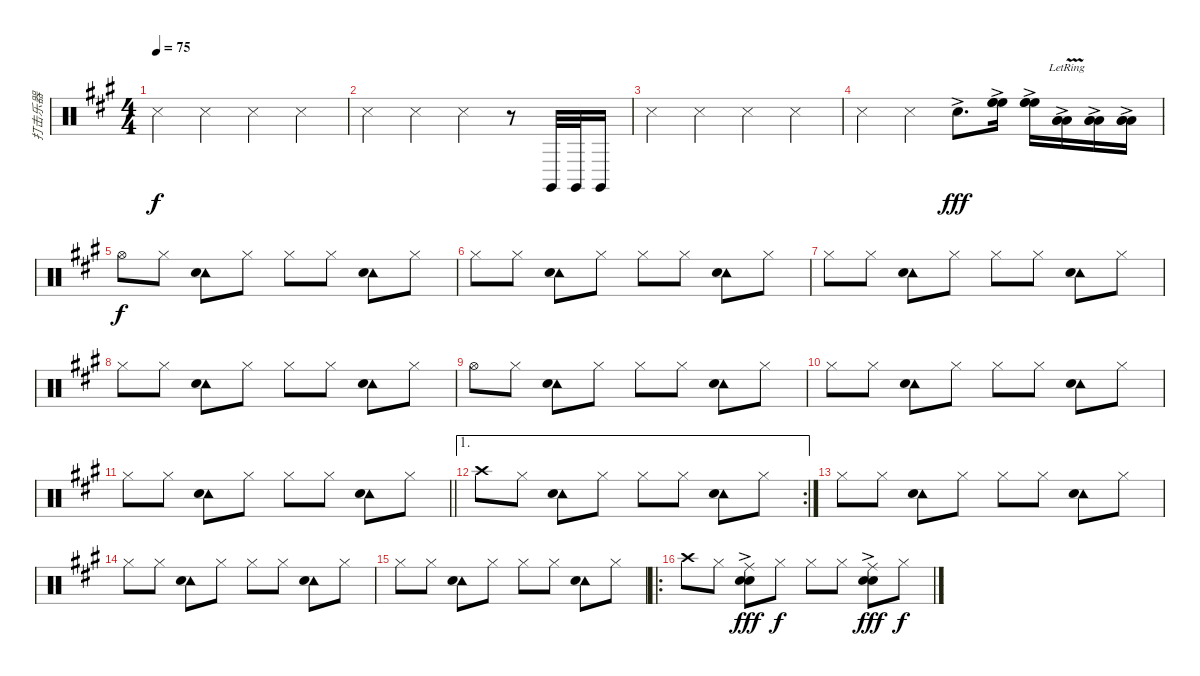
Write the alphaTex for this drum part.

\track ("打击乐器" "打击乐器") {instrument percussion}
\staff {score}
\articulation defaults
\ts (4 4)
\tempo 75
\clef neutral
\ks a "Metronome (hit)".4{dy f} "Metronome (hit)".4 "Metronome (hit)".4 "Metronome (hit)".4
|
"Metronome (hit)".4 "Metronome (hit)".4 "Metronome (hit)".4 r.8 "Claves (hit)".32 "Claves (hit)".32 "Claves (hit)".16 |
"Metronome (hit)".4 "Metronome (hit)".4 "Metronome (hit)".4 "Metronome (hit)".4 |
"Metronome (hit)".4 "Metronome (hit)".4 "Electric Snare (hit)"{ac}.8{d dy fff} ("High Floor Tom (hit)"{ac} "High Floor Tom (hit)"{ac} "High Floor Tom (hit)"{ac}).16 ("High Floor Tom (hit)"{ac} "High Floor Tom (hit)"{ac} "High Floor Tom (hit)"{ac}).16 ("Low Tom (hit)"{ac} "Low Tom (hit)"{v ac} "Low Tom (hit)"{v ac lr}).16 ("Low Tom (hit)"{ac lr} "Low Tom (hit)"{ac} "Low Tom (hit)"{ac}).16 ("Low Floor Tom (hit)"{ac} "Low Floor Tom (hit)"{ac} "Low Floor Tom (hit)"{ac}).16 |
"Hi-Hat (open)".8{dy f} "Hi-Hat (closed)".8 ("Tambourine (hit)" "Electric Snare (hit)").8 "Hi-Hat (closed)".8 "Hi-Hat (closed)".8 "Hi-Hat (closed)".8 ("Tambourine (hit)" "Electric Snare (hit)").8 "Hi-Hat (closed)".8 |
"Hi-Hat (closed)".8 "Hi-Hat (closed)".8 ("Tambourine (hit)" "Electric Snare (hit)").8 "Hi-Hat (closed)".8 "Hi-Hat (closed)".8 "Hi-Hat (closed)".8 ("Tambourine (hit)" "Electric Snare (hit)").8 "Hi-Hat (closed)".8 |
"Hi-Hat (closed)".8 "Hi-Hat (closed)".8 ("Tambourine (hit)" "Electric Snare (hit)").8 "Hi-Hat (closed)".8 "Hi-Hat (closed)".8 "Hi-Hat (closed)".8 ("Tambourine (hit)" "Electric Snare (hit)").8 "Hi-Hat (closed)".8 |
"Hi-Hat (closed)".8 "Hi-Hat (closed)".8 ("Tambourine (hit)" "Electric Snare (hit)").8 "Hi-Hat (closed)".8 "Hi-Hat (closed)".8 "Hi-Hat (closed)".8 ("Tambourine (hit)" "Electric Snare (hit)").8 "Hi-Hat (closed)".8 |
"Hi-Hat (open)".8 "Hi-Hat (closed)".8 ("Tambourine (hit)" "Electric Snare (hit)").8 "Hi-Hat (closed)".8 "Hi-Hat (closed)".8 "Hi-Hat (closed)".8 ("Tambourine (hit)" "Electric Snare (hit)").8 "Hi-Hat (closed)".8 |
"Hi-Hat (closed)".8 "Hi-Hat (closed)".8 ("Tambourine (hit)" "Electric Snare (hit)").8 "Hi-Hat (closed)".8 "Hi-Hat (closed)".8 "Hi-Hat (closed)".8 ("Tambourine (hit)" "Electric Snare (hit)").8 "Hi-Hat (closed)".8 |
\barLineRight lightlight "Hi-Hat (closed)".8 "Hi-Hat (closed)".8
("Tambourine (hit)" "Electric Snare (hit)").8 "Hi-Hat (closed)".8 "Hi-Hat (closed)".8 "Hi-Hat (closed)".8 ("Tambourine (hit)" "Electric Snare (hit)").8 "Hi-Hat (closed)".8 |
\ae 1
\rc 2 "Crash high (hit)".8 "Hi-Hat (closed)".8
("Tambourine (hit)" "Electric Snare (hit)").8 "Hi-Hat (closed)".8 "Hi-Hat (closed)".8 "Hi-Hat (closed)".8 ("Tambourine (hit)" "Electric Snare (hit)").8 "Hi-Hat (closed)".8 |
"Hi-Hat (closed)".8 "Hi-Hat (closed)".8 ("Tambourine (hit)" "Electric Snare (hit)").8 "Hi-Hat (closed)".8 "Hi-Hat (closed)".8 "Hi-Hat (closed)".8 ("Tambourine (hit)" "Electric Snare (hit)").8 "Hi-Hat (closed)".8 |
"Hi-Hat (closed)".8 "Hi-Hat (closed)".8 ("Tambourine (hit)" "Electric Snare (hit)").8 "Hi-Hat (closed)".8 "Hi-Hat (closed)".8 "Hi-Hat (closed)".8 ("Tambourine (hit)" "Electric Snare (hit)").8 "Hi-Hat (closed)".8 |
"Hi-Hat (closed)".8 "Hi-Hat (closed)".8 ("Tambourine (hit)" "Electric Snare (hit)").8 "Hi-Hat (closed)".8 "Hi-Hat (closed)".8 "Hi-Hat (closed)".8 ("Tambourine (hit)" "Electric Snare (hit)").8 "Hi-Hat (closed)".8 |
\ro "Crash high (hit)".8 "Hi-Hat (closed)".8
("Snare (hit) 2"{ac} "Ride (middle)" "Electric Snare (hit)").8{dy fff} "Hi-Hat (closed)".8{dy f} "Hi-Hat (closed)".8 "Hi-Hat (closed)".8 ("Snare (hit) 2"{ac} "Ride (middle)" "Electric Snare (hit)").8{dy fff} "Hi-Hat (closed)".8{dy f}
